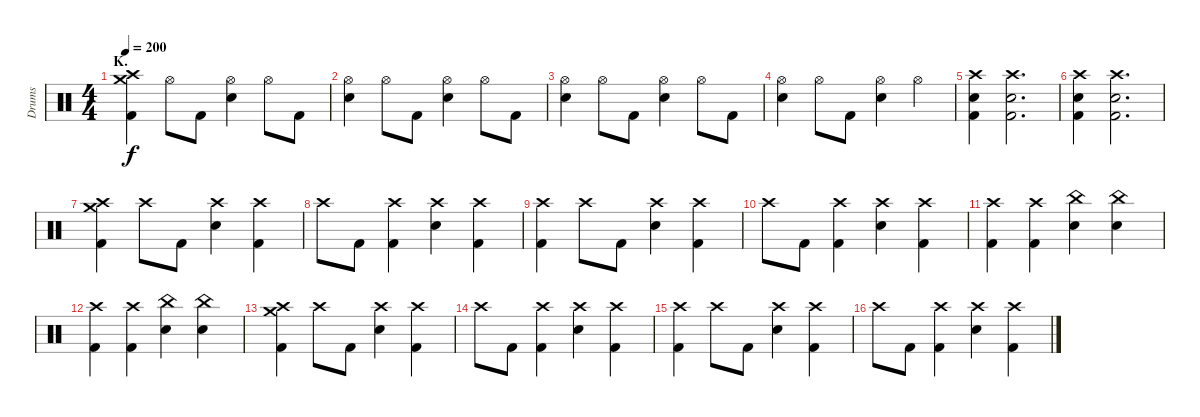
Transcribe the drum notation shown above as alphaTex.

\track ("Drums" "Drums") {instrument percussion}
\staff {score}
\articulation defaults
\ts (4 4)
\section ("" "K.")
\tempo 200
\clef neutral
\ks c
("Crash medium (hit)" "Crash high (hit)" "Kick (hit) 2").4{dy f} "Hi-Hat (open)".8 "Kick (hit) 2".8 ("Hi-Hat (open)" "Electric Snare (hit)").4 "Hi-Hat (open)".8 "Kick (hit) 2".8 |
("Hi-Hat (open)" "Electric Snare (hit)").4 "Hi-Hat (open)".8 "Kick (hit) 2".8 ("Hi-Hat (open)" "Electric Snare (hit)").4 "Hi-Hat (open)".8 "Kick (hit) 2".8 |
("Hi-Hat (open)" "Electric Snare (hit)").4 "Hi-Hat (open)".8 "Kick (hit) 2".8 ("Hi-Hat (open)" "Electric Snare (hit)").4 "Hi-Hat (open)".8 "Kick (hit) 2".8 |
("Hi-Hat (open)" "Electric Snare (hit)").4 "Hi-Hat (open)".8 "Kick (hit) 2".8 ("Hi-Hat (open)" "Electric Snare (hit)").4 "Hi-Hat (open)".4 |
("Crash high (hit)" "Electric Snare (hit)" "Kick (hit) 2").4 ("Crash high (hit)" "Electric Snare (hit)" "Kick (hit) 2").2{d} |
("Crash high (hit)" "Electric Snare (hit)" "Kick (hit) 2").4 ("Crash high (hit)" "Electric Snare (hit)" "Kick (hit) 2").2{d} |
("Crash medium (hit)" "Crash high (hit)" "Kick (hit) 2").4 "Crash high (hit)".8 "Kick (hit) 2".8 ("Crash high (hit)" "Electric Snare (hit)").4 ("Crash high (hit)" "Kick (hit) 2").4 |
"Crash high (hit)".8 "Kick (hit) 2".8 ("Crash high (hit)" "Kick (hit) 2").4 ("Crash high (hit)" "Electric Snare (hit)").4 ("Crash high (hit)" "Kick (hit) 2").4 |
("Crash high (hit)" "Kick (hit) 2").4 "Crash high (hit)".8 "Kick (hit) 2".8 ("Crash high (hit)" "Electric Snare (hit)").4 ("Crash high (hit)" "Kick (hit) 2").4 |
"Crash high (hit)".8 "Kick (hit) 2".8 ("Crash high (hit)" "Kick (hit) 2").4 ("Crash high (hit)" "Electric Snare (hit)").4 ("Crash high (hit)" "Kick (hit) 2").4 |
("Crash high (hit)" "Kick (hit) 2").4 ("Crash high (hit)" "Kick (hit) 2").4 ("China (hit)" "Electric Snare (hit)").4 ("China (hit)" "Electric Snare (hit)").4 |
("Crash high (hit)" "Kick (hit) 2").4 ("Crash high (hit)" "Kick (hit) 2").4 ("China (hit)" "Electric Snare (hit)").4 ("China (hit)" "Electric Snare (hit)").4 |
("Crash medium (hit)" "Crash high (hit)" "Kick (hit) 2").4 "Crash high (hit)".8 "Kick (hit) 2".8 ("Crash high (hit)" "Electric Snare (hit)").4 ("Crash high (hit)" "Kick (hit) 2").4 |
"Crash high (hit)".8 "Kick (hit) 2".8 ("Crash high (hit)" "Kick (hit) 2").4 ("Crash high (hit)" "Electric Snare (hit)").4 ("Crash high (hit)" "Kick (hit) 2").4 |
("Crash high (hit)" "Kick (hit) 2").4 "Crash high (hit)".8 "Kick (hit) 2".8 ("Crash high (hit)" "Electric Snare (hit)").4 ("Crash high (hit)" "Kick (hit) 2").4 |
"Crash high (hit)".8 "Kick (hit) 2".8 ("Crash high (hit)" "Kick (hit) 2").4 ("Crash high (hit)" "Electric Snare (hit)").4 ("Crash high (hit)" "Kick (hit) 2").4
